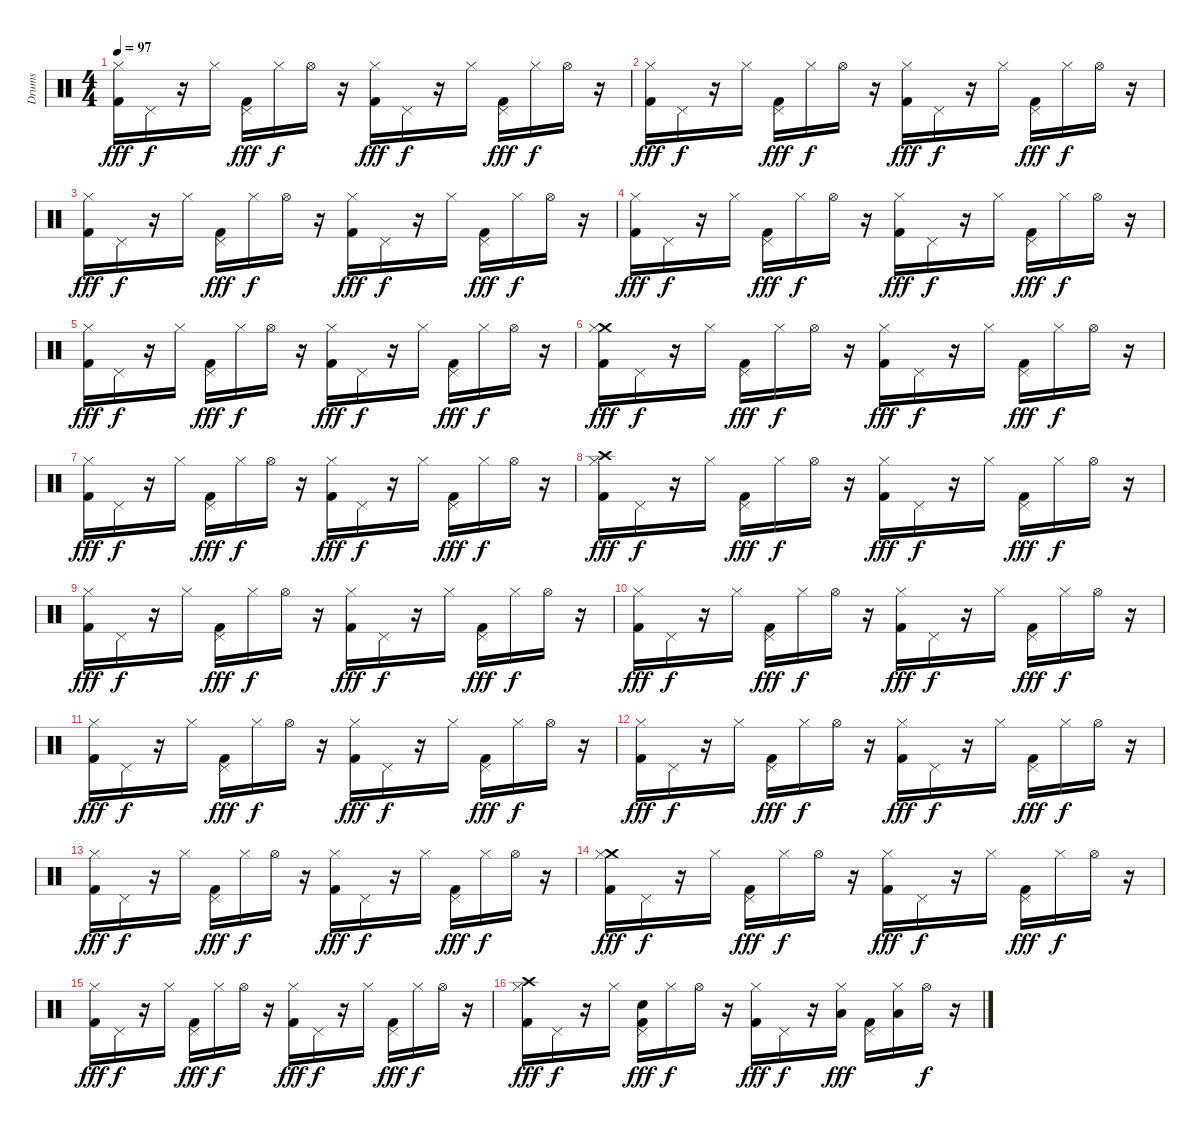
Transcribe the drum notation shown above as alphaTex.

\track ("Drums" "Drums") {instrument percussion}
\staff {score}
\articulation defaults
\ts (4 4)
\tempo 97
\clef neutral
\ks c
("Kick (hit) 2" "Hi-Hat (closed)").16{dy fff} "Pedal Hi-Hat (hit)".16{dy f} r.16 "Hi-Hat (closed)".16 ("Kick (hit) 2" "Pedal Hi-Hat (hit)").16{dy fff} "Hi-Hat (closed)".16{dy f} "Hi-Hat (open)".16 r.16 ("Kick (hit) 2" "Hi-Hat (closed)").16{dy fff} "Pedal Hi-Hat (hit)".16{dy f} r.16 "Hi-Hat (closed)".16 ("Kick (hit) 2" "Pedal Hi-Hat (hit)").16{dy fff} "Hi-Hat (closed)".16{dy f} "Hi-Hat (open)".16 r.16 |
("Kick (hit) 2" "Hi-Hat (closed)").16{dy fff} "Pedal Hi-Hat (hit)".16{dy f} r.16 "Hi-Hat (closed)".16 ("Kick (hit) 2" "Pedal Hi-Hat (hit)").16{dy fff} "Hi-Hat (closed)".16{dy f} "Hi-Hat (open)".16 r.16 ("Kick (hit) 2" "Hi-Hat (closed)").16{dy fff} "Pedal Hi-Hat (hit)".16{dy f} r.16 "Hi-Hat (closed)".16 ("Kick (hit) 2" "Pedal Hi-Hat (hit)").16{dy fff} "Hi-Hat (closed)".16{dy f} "Hi-Hat (open)".16 r.16 |
("Kick (hit) 2" "Hi-Hat (closed)").16{dy fff} "Pedal Hi-Hat (hit)".16{dy f} r.16 "Hi-Hat (closed)".16 ("Kick (hit) 2" "Pedal Hi-Hat (hit)").16{dy fff} "Hi-Hat (closed)".16{dy f} "Hi-Hat (open)".16 r.16 ("Kick (hit) 2" "Hi-Hat (closed)").16{dy fff} "Pedal Hi-Hat (hit)".16{dy f} r.16 "Hi-Hat (closed)".16 ("Kick (hit) 2" "Pedal Hi-Hat (hit)").16{dy fff} "Hi-Hat (closed)".16{dy f} "Hi-Hat (open)".16 r.16 |
("Kick (hit) 2" "Hi-Hat (closed)").16{dy fff} "Pedal Hi-Hat (hit)".16{dy f} r.16 "Hi-Hat (closed)".16 ("Kick (hit) 2" "Pedal Hi-Hat (hit)").16{dy fff} "Hi-Hat (closed)".16{dy f} "Hi-Hat (open)".16 r.16 ("Kick (hit) 2" "Hi-Hat (closed)").16{dy fff} "Pedal Hi-Hat (hit)".16{dy f} r.16 "Hi-Hat (closed)".16 ("Kick (hit) 2" "Pedal Hi-Hat (hit)").16{dy fff} "Hi-Hat (closed)".16{dy f} "Hi-Hat (open)".16 r.16 |
("Kick (hit) 2" "Hi-Hat (closed)").16{dy fff} "Pedal Hi-Hat (hit)".16{dy f} r.16 "Hi-Hat (closed)".16 ("Kick (hit) 2" "Pedal Hi-Hat (hit)").16{dy fff} "Hi-Hat (closed)".16{dy f} "Hi-Hat (open)".16 r.16 ("Kick (hit) 2" "Hi-Hat (closed)").16{dy fff} "Pedal Hi-Hat (hit)".16{dy f} r.16 "Hi-Hat (closed)".16 ("Kick (hit) 2" "Pedal Hi-Hat (hit)").16{dy fff} "Hi-Hat (closed)".16{dy f} "Hi-Hat (open)".16 r.16 |
("Crash medium (hit)" "Kick (hit) 2" "Hi-Hat (closed)").16{dy fff} "Pedal Hi-Hat (hit)".16{dy f} r.16 "Hi-Hat (closed)".16 ("Kick (hit) 2" "Pedal Hi-Hat (hit)").16{dy fff} "Hi-Hat (closed)".16{dy f} "Hi-Hat (open)".16 r.16 ("Kick (hit) 2" "Hi-Hat (closed)").16{dy fff} "Pedal Hi-Hat (hit)".16{dy f} r.16 "Hi-Hat (closed)".16 ("Kick (hit) 2" "Pedal Hi-Hat (hit)").16{dy fff} "Hi-Hat (closed)".16{dy f} "Hi-Hat (open)".16 r.16 |
("Kick (hit) 2" "Hi-Hat (closed)").16{dy fff} "Pedal Hi-Hat (hit)".16{dy f} r.16 "Hi-Hat (closed)".16 ("Kick (hit) 2" "Pedal Hi-Hat (hit)").16{dy fff} "Hi-Hat (closed)".16{dy f} "Hi-Hat (open)".16 r.16 ("Kick (hit) 2" "Hi-Hat (closed)").16{dy fff} "Pedal Hi-Hat (hit)".16{dy f} r.16 "Hi-Hat (closed)".16 ("Kick (hit) 2" "Pedal Hi-Hat (hit)").16{dy fff} "Hi-Hat (closed)".16{dy f} "Hi-Hat (open)".16 r.16 |
("Crash high (hit)" "Kick (hit) 2" "Hi-Hat (closed)").16{dy fff} "Pedal Hi-Hat (hit)".16{dy f} r.16 "Hi-Hat (closed)".16 ("Kick (hit) 2" "Pedal Hi-Hat (hit)").16{dy fff} "Hi-Hat (closed)".16{dy f} "Hi-Hat (open)".16 r.16 ("Kick (hit) 2" "Hi-Hat (closed)").16{dy fff} "Pedal Hi-Hat (hit)".16{dy f} r.16 "Hi-Hat (closed)".16 ("Kick (hit) 2" "Pedal Hi-Hat (hit)").16{dy fff} "Hi-Hat (closed)".16{dy f} "Hi-Hat (open)".16 r.16 |
("Kick (hit) 2" "Hi-Hat (closed)").16{dy fff} "Pedal Hi-Hat (hit)".16{dy f} r.16 "Hi-Hat (closed)".16 ("Kick (hit) 2" "Pedal Hi-Hat (hit)").16{dy fff} "Hi-Hat (closed)".16{dy f} "Hi-Hat (open)".16 r.16 ("Kick (hit) 2" "Hi-Hat (closed)").16{dy fff} "Pedal Hi-Hat (hit)".16{dy f} r.16 "Hi-Hat (closed)".16 ("Kick (hit) 2" "Pedal Hi-Hat (hit)").16{dy fff} "Hi-Hat (closed)".16{dy f} "Hi-Hat (open)".16 r.16 |
("Kick (hit) 2" "Hi-Hat (closed)").16{dy fff} "Pedal Hi-Hat (hit)".16{dy f} r.16 "Hi-Hat (closed)".16 ("Kick (hit) 2" "Pedal Hi-Hat (hit)").16{dy fff} "Hi-Hat (closed)".16{dy f} "Hi-Hat (open)".16 r.16 ("Kick (hit) 2" "Hi-Hat (closed)").16{dy fff} "Pedal Hi-Hat (hit)".16{dy f} r.16 "Hi-Hat (closed)".16 ("Kick (hit) 2" "Pedal Hi-Hat (hit)").16{dy fff} "Hi-Hat (closed)".16{dy f} "Hi-Hat (open)".16 r.16 |
("Kick (hit) 2" "Hi-Hat (closed)").16{dy fff} "Pedal Hi-Hat (hit)".16{dy f} r.16 "Hi-Hat (closed)".16 ("Kick (hit) 2" "Pedal Hi-Hat (hit)").16{dy fff} "Hi-Hat (closed)".16{dy f} "Hi-Hat (open)".16 r.16 ("Kick (hit) 2" "Hi-Hat (closed)").16{dy fff} "Pedal Hi-Hat (hit)".16{dy f} r.16 "Hi-Hat (closed)".16 ("Kick (hit) 2" "Pedal Hi-Hat (hit)").16{dy fff} "Hi-Hat (closed)".16{dy f} "Hi-Hat (open)".16 r.16 |
("Kick (hit) 2" "Hi-Hat (closed)").16{dy fff} "Pedal Hi-Hat (hit)".16{dy f} r.16 "Hi-Hat (closed)".16 ("Kick (hit) 2" "Pedal Hi-Hat (hit)").16{dy fff} "Hi-Hat (closed)".16{dy f} "Hi-Hat (open)".16 r.16 ("Kick (hit) 2" "Hi-Hat (closed)").16{dy fff} "Pedal Hi-Hat (hit)".16{dy f} r.16 "Hi-Hat (closed)".16 ("Kick (hit) 2" "Pedal Hi-Hat (hit)").16{dy fff} "Hi-Hat (closed)".16{dy f} "Hi-Hat (open)".16 r.16 |
("Kick (hit) 2" "Hi-Hat (closed)").16{dy fff} "Pedal Hi-Hat (hit)".16{dy f} r.16 "Hi-Hat (closed)".16 ("Kick (hit) 2" "Pedal Hi-Hat (hit)").16{dy fff} "Hi-Hat (closed)".16{dy f} "Hi-Hat (open)".16 r.16 ("Kick (hit) 2" "Hi-Hat (closed)").16{dy fff} "Pedal Hi-Hat (hit)".16{dy f} r.16 "Hi-Hat (closed)".16 ("Kick (hit) 2" "Pedal Hi-Hat (hit)").16{dy fff} "Hi-Hat (closed)".16{dy f} "Hi-Hat (open)".16 r.16 |
("Crash medium (hit)" "Kick (hit) 2" "Hi-Hat (closed)").16{dy fff} "Pedal Hi-Hat (hit)".16{dy f} r.16 "Hi-Hat (closed)".16 ("Kick (hit) 2" "Pedal Hi-Hat (hit)").16{dy fff} "Hi-Hat (closed)".16{dy f} "Hi-Hat (open)".16 r.16 ("Kick (hit) 2" "Hi-Hat (closed)").16{dy fff} "Pedal Hi-Hat (hit)".16{dy f} r.16 "Hi-Hat (closed)".16 ("Kick (hit) 2" "Pedal Hi-Hat (hit)").16{dy fff} "Hi-Hat (closed)".16{dy f} "Hi-Hat (open)".16 r.16 |
("Hi-Hat (closed)" "Kick (hit) 2").16{dy fff} "Pedal Hi-Hat (hit)".16{dy f} r.16 "Hi-Hat (closed)".16 ("Pedal Hi-Hat (hit)" "Kick (hit) 2").16{dy fff} "Hi-Hat (closed)".16{dy f} "Hi-Hat (open)".16 r.16 ("Kick (hit) 2" "Hi-Hat (closed)").16{dy fff} "Pedal Hi-Hat (hit)".16{dy f} r.16 "Hi-Hat (closed)".16 ("Kick (hit) 2" "Pedal Hi-Hat (hit)").16{dy fff} "Hi-Hat (closed)".16{dy f} "Hi-Hat (open)".16 r.16 |
("Crash high (hit)" "Hi-Hat (closed)" "Kick (hit) 2").16{dy fff} "Pedal Hi-Hat (hit)".16{dy f} r.16 "Hi-Hat (closed)".16 ("Snare (hit) 2" "Kick (hit) 2" "Pedal Hi-Hat (hit)").16{dy fff} "Hi-Hat (closed)".16{dy f} "Hi-Hat (open)".16 r.16 ("Hi-Hat (closed)" "Kick (hit) 2").16{dy fff} "Pedal Hi-Hat (hit)".16{dy f} r.16 ("Low Tom (hit)" "Hi-Hat (closed)").16{dy fff} ("Kick (hit) 2" "Pedal Hi-Hat (hit)").16 ("Low Floor Tom (hit)" "Hi-Hat (closed)").16 "Hi-Hat (open)".16{dy f} r.16
